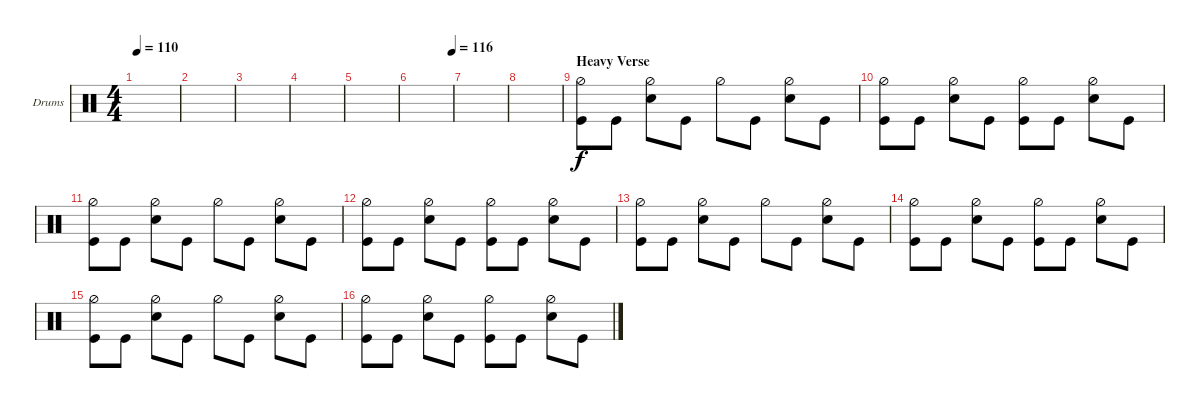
\defaultSystemsLayout 4
\bracketExtendMode groupsimilarinstruments
\firstSystemTrackNameOrientation horizontal
\otherSystemsTrackNameOrientation horizontal
\track ("Drumkit" "Drums") {instrument percussion}
\staff {score}
\articulation defaults
\ts (4 4)
\tempo 110
\clef neutral
\scale
0.333333
\ks c
|
\scale
0.333333 |
\scale
0.333333 |
\scale
0.333333 |
\scale
0.333333 |
\tempo (116 1)
\scale
0.333333 |
\scale
0.333333 |
\scale
0.333333 |
\section ("" "Heavy Verse")
\scale
0.333333 ("Hi-Hat (half)" "Kick (hit)").8 "Kick (hit)".8 ("Hi-Hat (half)" "Snare (hit) 2").8 "Kick (hit)".8 "Hi-Hat (half)".8 "Kick (hit)".8 ("Hi-Hat (half)" "Snare (hit) 2").8 "Kick (hit)".8 |
\scale
0.333333 ("Hi-Hat (half)" "Kick (hit)").8 "Kick (hit)".8 ("Hi-Hat (half)" "Snare (hit) 2").8 "Kick (hit)".8 ("Hi-Hat (half)" "Kick (hit)").8 "Kick (hit)".8 ("Hi-Hat (half)" "Snare (hit) 2").8 "Kick (hit)".8 |
\scale
0.333333 ("Hi-Hat (half)" "Kick (hit)").8 "Kick (hit)".8 ("Hi-Hat (half)" "Snare (hit) 2").8 "Kick (hit)".8 "Hi-Hat (half)".8 "Kick (hit)".8 ("Hi-Hat (half)" "Snare (hit) 2").8 "Kick (hit)".8 |
\scale
0.333333 ("Hi-Hat (half)" "Kick (hit)").8 "Kick (hit)".8 ("Hi-Hat (half)" "Snare (hit) 2").8 "Kick (hit)".8 ("Hi-Hat (half)" "Kick (hit)").8 "Kick (hit)".8 ("Hi-Hat (half)" "Snare (hit) 2").8 "Kick (hit)".8 |
("Hi-Hat (half)" "Kick (hit)").8 "Kick (hit)".8 ("Hi-Hat (half)" "Snare (hit) 2").8 "Kick (hit)".8 "Hi-Hat (half)".8 "Kick (hit)".8 ("Hi-Hat (half)" "Snare (hit) 2").8 "Kick (hit)".8 |
("Hi-Hat (half)" "Kick (hit)").8 "Kick (hit)".8 ("Hi-Hat (half)" "Snare (hit) 2").8 "Kick (hit)".8 ("Hi-Hat (half)" "Kick (hit)").8 "Kick (hit)".8 ("Hi-Hat (half)" "Snare (hit) 2").8 "Kick (hit)".8 |
("Hi-Hat (half)" "Kick (hit)").8 "Kick (hit)".8 ("Hi-Hat (half)" "Snare (hit) 2").8 "Kick (hit)".8 "Hi-Hat (half)".8 "Kick (hit)".8 ("Hi-Hat (half)" "Snare (hit) 2").8 "Kick (hit)".8 |
("Hi-Hat (half)" "Kick (hit)").8 "Kick (hit)".8 ("Hi-Hat (half)" "Snare (hit) 2").8 "Kick (hit)".8 ("Hi-Hat (half)" "Kick (hit)").8 "Kick (hit)".8 ("Hi-Hat (half)" "Snare (hit) 2").8 "Kick (hit)".8
